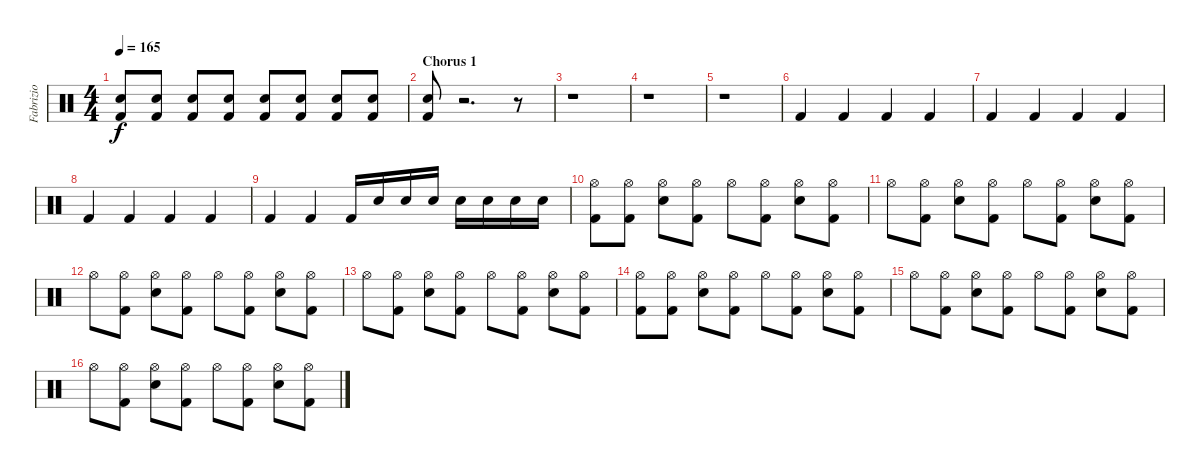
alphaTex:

\track ("Fabrizio" "Fabrizio") {instrument percussion}
\staff {score}
\articulation defaults
\ts (4 4)
\tempo 165
\clef neutral
\ks c
("Snare (hit) 2" "Kick (hit) 2").8{dy f} ("Snare (hit) 2" "Kick (hit) 2").8 ("Snare (hit) 2" "Kick (hit) 2").8 ("Snare (hit) 2" "Kick (hit) 2").8 ("Snare (hit) 2" "Kick (hit) 2").8 ("Snare (hit) 2" "Kick (hit) 2").8 ("Snare (hit) 2" "Kick (hit) 2").8 ("Snare (hit) 2" "Kick (hit) 2").8 |
\section ("" "Chorus 1")
("Snare (hit) 2" "Kick (hit) 2").8 r.2{d} r.8 |
r.1 |
r.1 |
r.1 |
"Kick (hit) 2".4 "Kick (hit) 2".4 "Kick (hit) 2".4 "Kick (hit) 2".4 |
"Kick (hit) 2".4 "Kick (hit) 2".4 "Kick (hit) 2".4 "Kick (hit) 2".4 |
"Kick (hit) 2".4 "Kick (hit) 2".4 "Kick (hit) 2".4 "Kick (hit) 2".4 |
"Kick (hit) 2".4 "Kick (hit) 2".4 "Kick (hit) 2".16 "Snare (hit) 2".16 "Snare (hit) 2".16 "Snare (hit) 2".16 "Snare (hit) 2".16 "Snare (hit) 2".16 "Snare (hit) 2".16 "Snare (hit) 2".16 |
("Kick (hit) 2" "Hi-Hat (open)").8 ("Kick (hit) 2" "Hi-Hat (open)").8 ("Snare (hit) 2" "Hi-Hat (open)").8 ("Kick (hit) 2" "Hi-Hat (open)").8 "Hi-Hat (open)".8 ("Kick (hit) 2" "Hi-Hat (open)").8 ("Snare (hit) 2" "Hi-Hat (open)").8 ("Kick (hit) 2" "Hi-Hat (open)").8 |
"Hi-Hat (open)".8 ("Hi-Hat (open)" "Kick (hit) 2").8 ("Hi-Hat (open)" "Snare (hit) 2").8 ("Hi-Hat (open)" "Kick (hit) 2").8 "Hi-Hat (open)".8 ("Hi-Hat (open)" "Kick (hit) 2").8 ("Hi-Hat (open)" "Snare (hit) 2").8 ("Hi-Hat (open)" "Kick (hit) 2").8 |
"Hi-Hat (open)".8 ("Hi-Hat (open)" "Kick (hit) 2").8 ("Hi-Hat (open)" "Snare (hit) 2").8 ("Hi-Hat (open)" "Kick (hit) 2").8 "Hi-Hat (open)".8 ("Hi-Hat (open)" "Kick (hit) 2").8 ("Hi-Hat (open)" "Snare (hit) 2").8 ("Hi-Hat (open)" "Kick (hit) 2").8 |
"Hi-Hat (open)".8 ("Hi-Hat (open)" "Kick (hit) 2").8 ("Hi-Hat (open)" "Snare (hit) 2").8 ("Hi-Hat (open)" "Kick (hit) 2").8 "Hi-Hat (open)".8 ("Hi-Hat (open)" "Kick (hit) 2").8 ("Hi-Hat (open)" "Snare (hit) 2").8 ("Hi-Hat (open)" "Kick (hit) 2").8 |
("Hi-Hat (open)" "Kick (hit) 2").8 ("Hi-Hat (open)" "Kick (hit) 2").8 ("Hi-Hat (open)" "Snare (hit) 2").8 ("Hi-Hat (open)" "Kick (hit) 2").8 "Hi-Hat (open)".8 ("Hi-Hat (open)" "Kick (hit) 2").8 ("Hi-Hat (open)" "Snare (hit) 2").8 ("Hi-Hat (open)" "Kick (hit) 2").8 |
"Hi-Hat (open)".8 ("Hi-Hat (open)" "Kick (hit) 2").8 ("Hi-Hat (open)" "Snare (hit) 2").8 ("Hi-Hat (open)" "Kick (hit) 2").8 "Hi-Hat (open)".8 ("Hi-Hat (open)" "Kick (hit) 2").8 ("Hi-Hat (open)" "Snare (hit) 2").8 ("Hi-Hat (open)" "Kick (hit) 2").8 |
"Hi-Hat (open)".8 ("Hi-Hat (open)" "Kick (hit) 2").8 ("Hi-Hat (open)" "Snare (hit) 2").8 ("Hi-Hat (open)" "Kick (hit) 2").8 "Hi-Hat (open)".8 ("Hi-Hat (open)" "Kick (hit) 2").8 ("Hi-Hat (open)" "Snare (hit) 2").8 ("Hi-Hat (open)" "Kick (hit) 2").8
